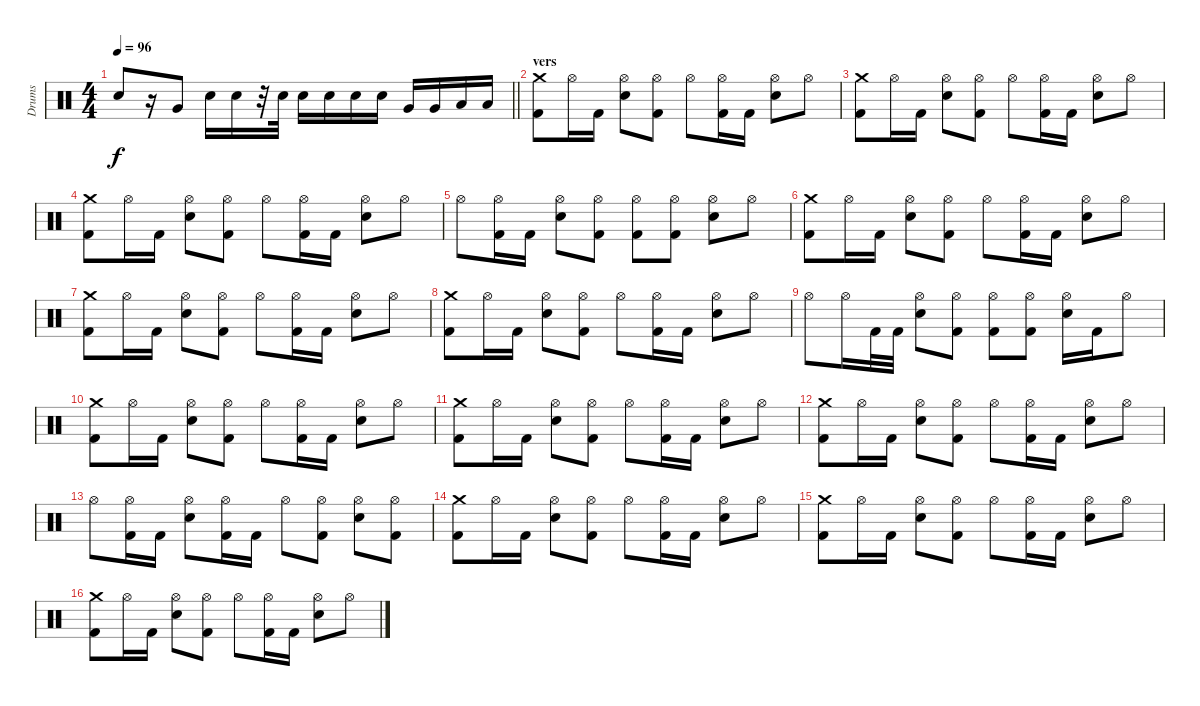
\track ("Drums" "Drums") {instrument percussion}
\staff {score}
\articulation defaults
\ts (4 4)
\tempo 96
\clef neutral
\barLineRight lightlight
\ks c "Electric Snare (hit)".8{dy f}
r.16 "Very Low Tom (hit)".8 "Electric Snare (hit)".16 "Electric Snare (hit)".16 r.32 "Electric Snare (hit)".32 "Electric Snare (hit)".16 "Electric Snare (hit)".16 "Electric Snare (hit)".16 "Electric Snare (hit)".16 "Very Low Tom (hit)".16 "Very Low Tom (hit)".16 "Low Floor Tom (hit)".16 "Low Floor Tom (hit)".16 |
\section ("" "vers")
("Crash medium (hit)" "Kick (hit) 2").8 "Hi-Hat (open)".16 "Kick (hit) 2".16 ("Hi-Hat (open)" "Electric Snare (hit)").8 ("Hi-Hat (open)" "Kick (hit) 2").8 "Hi-Hat (open)".8 ("Hi-Hat (open)" "Kick (hit) 2").16 "Kick (hit) 2".16 ("Hi-Hat (open)" "Electric Snare (hit)").8 "Hi-Hat (open)".8 |
("Crash medium (hit)" "Kick (hit) 2").8 "Hi-Hat (open)".16 "Kick (hit) 2".16 ("Hi-Hat (open)" "Electric Snare (hit)").8 ("Hi-Hat (open)" "Kick (hit) 2").8 "Hi-Hat (open)".8 ("Hi-Hat (open)" "Kick (hit) 2").16 "Kick (hit) 2".16 ("Hi-Hat (open)" "Electric Snare (hit)").8 "Hi-Hat (open)".8 |
("Crash medium (hit)" "Kick (hit) 2").8 "Hi-Hat (open)".16 "Kick (hit) 2".16 ("Hi-Hat (open)" "Electric Snare (hit)").8 ("Hi-Hat (open)" "Kick (hit) 2").8 "Hi-Hat (open)".8 ("Hi-Hat (open)" "Kick (hit) 2").16 "Kick (hit) 2".16 ("Hi-Hat (open)" "Electric Snare (hit)").8 "Hi-Hat (open)".8 |
"Hi-Hat (open)".8 ("Hi-Hat (open)" "Kick (hit) 2").16 "Kick (hit) 2".16 ("Hi-Hat (open)" "Electric Snare (hit)").8 ("Hi-Hat (open)" "Kick (hit) 2").8 ("Hi-Hat (open)" "Kick (hit) 2").8 ("Hi-Hat (open)" "Kick (hit) 2").8 ("Hi-Hat (open)" "Electric Snare (hit)").8 "Hi-Hat (open)".8 |
("Crash medium (hit)" "Kick (hit) 2").8 "Hi-Hat (open)".16 "Kick (hit) 2".16 ("Hi-Hat (open)" "Electric Snare (hit)").8 ("Hi-Hat (open)" "Kick (hit) 2").8 "Hi-Hat (open)".8 ("Hi-Hat (open)" "Kick (hit) 2").16 "Kick (hit) 2".16 ("Hi-Hat (open)" "Electric Snare (hit)").8 "Hi-Hat (open)".8 |
("Crash medium (hit)" "Kick (hit) 2").8 "Hi-Hat (open)".16 "Kick (hit) 2".16 ("Hi-Hat (open)" "Electric Snare (hit)").8 ("Hi-Hat (open)" "Kick (hit) 2").8 "Hi-Hat (open)".8 ("Hi-Hat (open)" "Kick (hit) 2").16 "Kick (hit) 2".16 ("Hi-Hat (open)" "Electric Snare (hit)").8 "Hi-Hat (open)".8 |
("Crash medium (hit)" "Kick (hit) 2").8 "Hi-Hat (open)".16 "Kick (hit) 2".16 ("Hi-Hat (open)" "Electric Snare (hit)").8 ("Hi-Hat (open)" "Kick (hit) 2").8 "Hi-Hat (open)".8 ("Hi-Hat (open)" "Kick (hit) 2").16 "Kick (hit) 2".16 ("Hi-Hat (open)" "Electric Snare (hit)").8 "Hi-Hat (open)".8 |
"Hi-Hat (open)".8 "Hi-Hat (open)".16 "Kick (hit) 2".32 "Kick (hit) 2".32 ("Hi-Hat (open)" "Electric Snare (hit)").8 ("Hi-Hat (open)" "Kick (hit) 2").8 ("Hi-Hat (open)" "Kick (hit) 2").8 ("Hi-Hat (open)" "Kick (hit) 2").8 ("Hi-Hat (open)" "Electric Snare (hit)").16 "Kick (hit) 2".16 "Hi-Hat (open)".8 |
("Crash medium (hit)" "Kick (hit) 2").8 "Hi-Hat (open)".16 "Kick (hit) 2".16 ("Hi-Hat (open)" "Electric Snare (hit)").8 ("Hi-Hat (open)" "Kick (hit) 2").8 "Hi-Hat (open)".8 ("Hi-Hat (open)" "Kick (hit) 2").16 "Kick (hit) 2".16 ("Hi-Hat (open)" "Electric Snare (hit)").8 "Hi-Hat (open)".8 |
("Crash medium (hit)" "Kick (hit) 2").8 "Hi-Hat (open)".16 "Kick (hit) 2".16 ("Hi-Hat (open)" "Electric Snare (hit)").8 ("Hi-Hat (open)" "Kick (hit) 2").8 "Hi-Hat (open)".8 ("Hi-Hat (open)" "Kick (hit) 2").16 "Kick (hit) 2".16 ("Hi-Hat (open)" "Electric Snare (hit)").8 "Hi-Hat (open)".8 |
("Crash medium (hit)" "Kick (hit) 2").8 "Hi-Hat (open)".16 "Kick (hit) 2".16 ("Hi-Hat (open)" "Electric Snare (hit)").8 ("Hi-Hat (open)" "Kick (hit) 2").8 "Hi-Hat (open)".8 ("Hi-Hat (open)" "Kick (hit) 2").16 "Kick (hit) 2".16 ("Hi-Hat (open)" "Electric Snare (hit)").8 "Hi-Hat (open)".8 |
"Hi-Hat (open)".8 ("Hi-Hat (open)" "Kick (hit) 2").16 "Kick (hit) 2".16 ("Hi-Hat (open)" "Electric Snare (hit)").8 ("Hi-Hat (open)" "Kick (hit) 2").16 "Kick (hit) 2".16 "Hi-Hat (open)".8 ("Hi-Hat (open)" "Kick (hit) 2").8 ("Hi-Hat (open)" "Electric Snare (hit)").8 ("Hi-Hat (open)" "Kick (hit) 2").8 |
("Crash medium (hit)" "Kick (hit) 2").8 "Hi-Hat (open)".16 "Kick (hit) 2".16 ("Hi-Hat (open)" "Electric Snare (hit)").8 ("Hi-Hat (open)" "Kick (hit) 2").8 "Hi-Hat (open)".8 ("Hi-Hat (open)" "Kick (hit) 2").16 "Kick (hit) 2".16 ("Hi-Hat (open)" "Electric Snare (hit)").8 "Hi-Hat (open)".8 |
("Crash medium (hit)" "Kick (hit) 2").8 "Hi-Hat (open)".16 "Kick (hit) 2".16 ("Hi-Hat (open)" "Electric Snare (hit)").8 ("Hi-Hat (open)" "Kick (hit) 2").8 "Hi-Hat (open)".8 ("Hi-Hat (open)" "Kick (hit) 2").16 "Kick (hit) 2".16 ("Hi-Hat (open)" "Electric Snare (hit)").8 "Hi-Hat (open)".8 |
("Crash medium (hit)" "Kick (hit) 2").8 "Hi-Hat (open)".16 "Kick (hit) 2".16 ("Hi-Hat (open)" "Electric Snare (hit)").8 ("Hi-Hat (open)" "Kick (hit) 2").8 "Hi-Hat (open)".8 ("Hi-Hat (open)" "Kick (hit) 2").16 "Kick (hit) 2".16 ("Hi-Hat (open)" "Electric Snare (hit)").8 "Hi-Hat (open)".8
